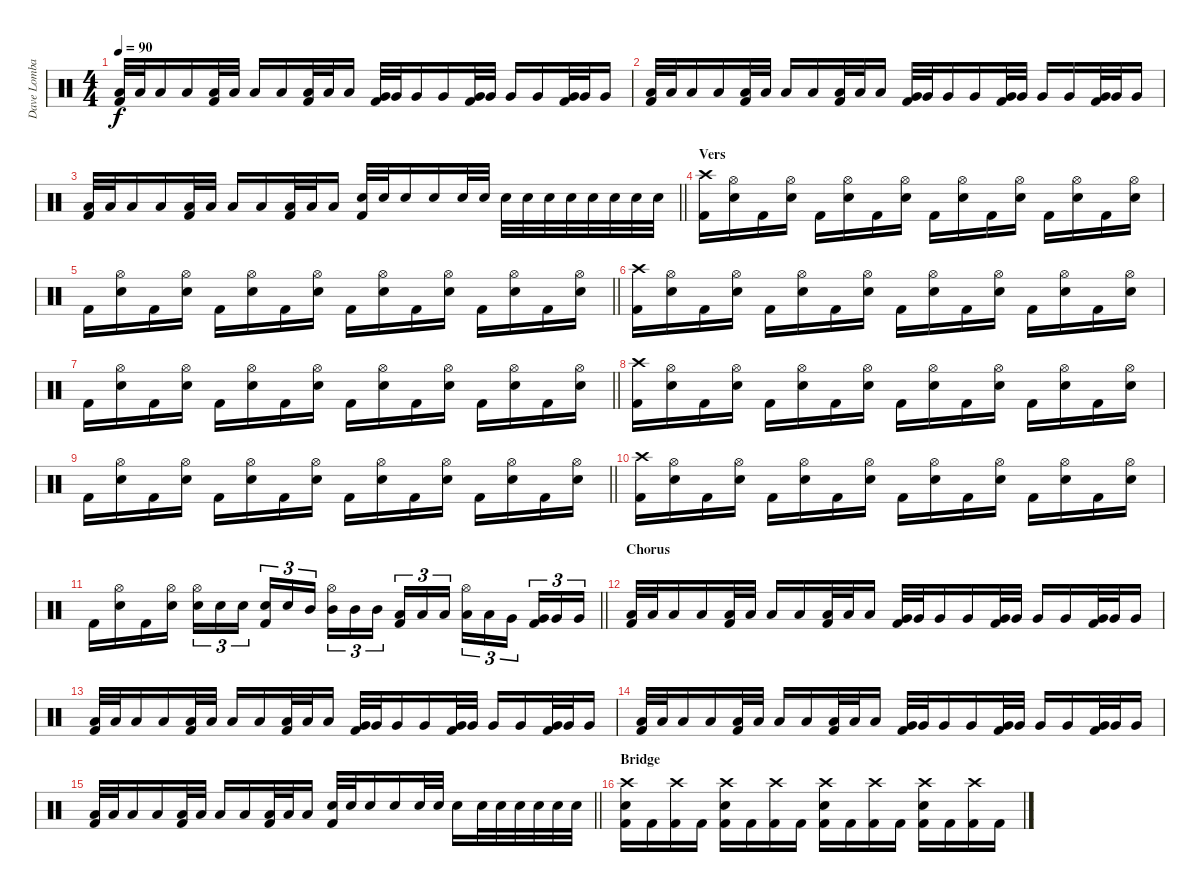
\track ("Dave Lombardo" "Dave Lomba") {instrument percussion}
\staff {score}
\articulation defaults
\ts (4 4)
\tempo 90
\clef neutral
\ks c
("Low Tom (hit)" "Kick (hit) 2").32{dy f} "Low Tom (hit)".32 "Low Tom (hit)".16 "Low Tom (hit)".16 ("Low Tom (hit)" "Kick (hit) 2").32 "Low Tom (hit)".32 "Low Tom (hit)".16 "Low Tom (hit)".16 ("Low Tom (hit)" "Kick (hit) 2").32 "Low Tom (hit)".32 "Low Tom (hit)".16 ("Very Low Tom (hit)" "Kick (hit) 2").32 "Very Low Tom (hit)".32 "Very Low Tom (hit)".16 "Very Low Tom (hit)".16 ("Very Low Tom (hit)" "Kick (hit) 2").32 "Very Low Tom (hit)".32 "Very Low Tom (hit)".16 "Very Low Tom (hit)".16 ("Very Low Tom (hit)" "Kick (hit) 2").32 "Very Low Tom (hit)".32 "Very Low Tom (hit)".16 |
("Low Tom (hit)" "Kick (hit) 2").32 "Low Tom (hit)".32 "Low Tom (hit)".16 "Low Tom (hit)".16 ("Low Tom (hit)" "Kick (hit) 2").32 "Low Tom (hit)".32 "Low Tom (hit)".16 "Low Tom (hit)".16 ("Low Tom (hit)" "Kick (hit) 2").32 "Low Tom (hit)".32 "Low Tom (hit)".16 ("Very Low Tom (hit)" "Kick (hit) 2").32 "Very Low Tom (hit)".32 "Very Low Tom (hit)".16 "Very Low Tom (hit)".16 ("Very Low Tom (hit)" "Kick (hit) 2").32 "Very Low Tom (hit)".32 "Very Low Tom (hit)".16 "Very Low Tom (hit)".16 ("Very Low Tom (hit)" "Kick (hit) 2").32 "Very Low Tom (hit)".32 "Very Low Tom (hit)".16 |
\barLineRight lightlight
("Low Tom (hit)" "Kick (hit) 2").32 "Low Tom (hit)".32 "Low Tom (hit)".16 "Low Tom (hit)".16 ("Low Tom (hit)" "Kick (hit) 2").32 "Low Tom (hit)".32 "Low Tom (hit)".16 "Low Tom (hit)".16 ("Low Tom (hit)" "Kick (hit) 2").32 "Low Tom (hit)".32 "Low Tom (hit)".16 ("Snare (hit) 2" "Kick (hit) 2").32 "Snare (hit) 2".32 "Snare (hit) 2".16 "Snare (hit) 2".16 "Snare (hit) 2".32 "Snare (hit) 2".32 "Snare (hit) 2".32 "Snare (hit) 2".32 "Snare (hit) 2".32 "Snare (hit) 2".32 "Snare (hit) 2".32 "Snare (hit) 2".32 "Snare (hit) 2".32 "Snare (hit) 2".32 |
\section ("" "Vers")
("Crash high (hit)" "Kick (hit) 2").16 ("Hi-Hat (open)" "Snare (hit) 2").16 "Kick (hit) 2".16 ("Hi-Hat (open)" "Snare (hit) 2").16 "Kick (hit) 2".16 ("Hi-Hat (open)" "Snare (hit) 2").16 "Kick (hit) 2".16 ("Hi-Hat (open)" "Snare (hit) 2").16 "Kick (hit) 2".16 ("Hi-Hat (open)" "Snare (hit) 2").16 "Kick (hit) 2".16 ("Hi-Hat (open)" "Snare (hit) 2").16 "Kick (hit) 2".16 ("Hi-Hat (open)" "Snare (hit) 2").16 "Kick (hit) 2".16 ("Hi-Hat (open)" "Snare (hit) 2").16 |
\barLineRight lightlight "Kick (hit) 2".16
("Hi-Hat (open)" "Snare (hit) 2").16 "Kick (hit) 2".16 ("Hi-Hat (open)" "Snare (hit) 2").16 "Kick (hit) 2".16 ("Hi-Hat (open)" "Snare (hit) 2").16 "Kick (hit) 2".16 ("Hi-Hat (open)" "Snare (hit) 2").16 "Kick (hit) 2".16 ("Hi-Hat (open)" "Snare (hit) 2").16 "Kick (hit) 2".16 ("Hi-Hat (open)" "Snare (hit) 2").16 "Kick (hit) 2".16 ("Hi-Hat (open)" "Snare (hit) 2").16 "Kick (hit) 2".16 ("Hi-Hat (open)" "Snare (hit) 2").16 |
("Crash high (hit)" "Kick (hit) 2").16 ("Hi-Hat (open)" "Snare (hit) 2").16 "Kick (hit) 2".16 ("Hi-Hat (open)" "Snare (hit) 2").16 "Kick (hit) 2".16 ("Hi-Hat (open)" "Snare (hit) 2").16 "Kick (hit) 2".16 ("Hi-Hat (open)" "Snare (hit) 2").16 "Kick (hit) 2".16 ("Hi-Hat (open)" "Snare (hit) 2").16 "Kick (hit) 2".16 ("Hi-Hat (open)" "Snare (hit) 2").16 "Kick (hit) 2".16 ("Hi-Hat (open)" "Snare (hit) 2").16 "Kick (hit) 2".16 ("Hi-Hat (open)" "Snare (hit) 2").16 |
\barLineRight lightlight "Kick (hit) 2".16
("Hi-Hat (open)" "Snare (hit) 2").16 "Kick (hit) 2".16 ("Hi-Hat (open)" "Snare (hit) 2").16 "Kick (hit) 2".16 ("Hi-Hat (open)" "Snare (hit) 2").16 "Kick (hit) 2".16 ("Hi-Hat (open)" "Snare (hit) 2").16 "Kick (hit) 2".16 ("Hi-Hat (open)" "Snare (hit) 2").16 "Kick (hit) 2".16 ("Hi-Hat (open)" "Snare (hit) 2").16 "Kick (hit) 2".16 ("Hi-Hat (open)" "Snare (hit) 2").16 "Kick (hit) 2".16 ("Hi-Hat (open)" "Snare (hit) 2").16 |
("Crash high (hit)" "Kick (hit) 2").16 ("Hi-Hat (open)" "Snare (hit) 2").16 "Kick (hit) 2".16 ("Hi-Hat (open)" "Snare (hit) 2").16 "Kick (hit) 2".16 ("Hi-Hat (open)" "Snare (hit) 2").16 "Kick (hit) 2".16 ("Hi-Hat (open)" "Snare (hit) 2").16 "Kick (hit) 2".16 ("Hi-Hat (open)" "Snare (hit) 2").16 "Kick (hit) 2".16 ("Hi-Hat (open)" "Snare (hit) 2").16 "Kick (hit) 2".16 ("Hi-Hat (open)" "Snare (hit) 2").16 "Kick (hit) 2".16 ("Hi-Hat (open)" "Snare (hit) 2").16 |
\barLineRight lightlight "Kick (hit) 2".16
("Hi-Hat (open)" "Snare (hit) 2").16 "Kick (hit) 2".16 ("Hi-Hat (open)" "Snare (hit) 2").16 "Kick (hit) 2".16 ("Hi-Hat (open)" "Snare (hit) 2").16 "Kick (hit) 2".16 ("Hi-Hat (open)" "Snare (hit) 2").16 "Kick (hit) 2".16 ("Hi-Hat (open)" "Snare (hit) 2").16 "Kick (hit) 2".16 ("Hi-Hat (open)" "Snare (hit) 2").16 "Kick (hit) 2".16 ("Hi-Hat (open)" "Snare (hit) 2").16 "Kick (hit) 2".16 ("Hi-Hat (open)" "Snare (hit) 2").16 |
("Crash high (hit)" "Kick (hit) 2").16 ("Hi-Hat (open)" "Snare (hit) 2").16 "Kick (hit) 2".16 ("Hi-Hat (open)" "Snare (hit) 2").16 "Kick (hit) 2".16 ("Hi-Hat (open)" "Snare (hit) 2").16 "Kick (hit) 2".16 ("Hi-Hat (open)" "Snare (hit) 2").16 "Kick (hit) 2".16 ("Hi-Hat (open)" "Snare (hit) 2").16 "Kick (hit) 2".16 ("Hi-Hat (open)" "Snare (hit) 2").16 "Kick (hit) 2".16 ("Hi-Hat (open)" "Snare (hit) 2").16 "Kick (hit) 2".16 ("Hi-Hat (open)" "Snare (hit) 2").16 |
\barLineRight lightlight "Kick (hit) 2".16
("Hi-Hat (open)" "Snare (hit) 2").16 "Kick (hit) 2".16 ("Hi-Hat (open)" "Snare (hit) 2").16 ("Hi-Hat (open)" "Snare (hit) 2").16{tu (3 2)} "Snare (hit) 2".16{tu (3 2)} "Snare (hit) 2".16{tu (3 2) beam splitsecondary} ("Snare (hit) 2" "Kick (hit) 2").16{tu (3 2)} "Snare (hit) 2".16{tu (3 2)} "Mid Tom (hit)".16{tu (3 2)} ("Hi-Hat (open)" "Mid Tom (hit)").16{tu (3 2)} "Mid Tom (hit)".16{tu (3 2)} "Mid Tom (hit)".16{tu (3 2) beam splitsecondary} ("Low Tom (hit)" "Kick (hit) 2").16{tu (3 2)} "Low Tom (hit)".16{tu (3 2)} "Low Tom (hit)".16{tu (3 2)} ("Hi-Hat (open)" "Low Tom (hit)").16{tu (3 2)} "Low Tom (hit)".16{tu (3 2)} "Very Low Tom (hit)".16{tu (3 2) beam splitsecondary} ("Very Low Tom (hit)" "Kick (hit) 2").16{tu (3 2)} "Very Low Tom (hit)".16{tu (3 2)} "Very Low Tom (hit)".16{tu (3 2)} |
\section ("" "Chorus")
("Low Tom (hit)" "Kick (hit) 2").32 "Low Tom (hit)".32 "Low Tom (hit)".16 "Low Tom (hit)".16 ("Low Tom (hit)" "Kick (hit) 2").32 "Low Tom (hit)".32 "Low Tom (hit)".16 "Low Tom (hit)".16 ("Low Tom (hit)" "Kick (hit) 2").32 "Low Tom (hit)".32 "Low Tom (hit)".16 ("Very Low Tom (hit)" "Kick (hit) 2").32 "Very Low Tom (hit)".32 "Very Low Tom (hit)".16 "Very Low Tom (hit)".16 ("Very Low Tom (hit)" "Kick (hit) 2").32 "Very Low Tom (hit)".32 "Very Low Tom (hit)".16 "Very Low Tom (hit)".16 ("Very Low Tom (hit)" "Kick (hit) 2").32 "Very Low Tom (hit)".32 "Very Low Tom (hit)".16 |
("Low Tom (hit)" "Kick (hit) 2").32 "Low Tom (hit)".32 "Low Tom (hit)".16 "Low Tom (hit)".16 ("Low Tom (hit)" "Kick (hit) 2").32 "Low Tom (hit)".32 "Low Tom (hit)".16 "Low Tom (hit)".16 ("Low Tom (hit)" "Kick (hit) 2").32 "Low Tom (hit)".32 "Low Tom (hit)".16 ("Very Low Tom (hit)" "Kick (hit) 2").32 "Very Low Tom (hit)".32 "Very Low Tom (hit)".16 "Very Low Tom (hit)".16 ("Very Low Tom (hit)" "Kick (hit) 2").32 "Very Low Tom (hit)".32 "Very Low Tom (hit)".16 "Very Low Tom (hit)".16 ("Very Low Tom (hit)" "Kick (hit) 2").32 "Very Low Tom (hit)".32 "Very Low Tom (hit)".16 |
("Low Tom (hit)" "Kick (hit) 2").32 "Low Tom (hit)".32 "Low Tom (hit)".16 "Low Tom (hit)".16 ("Low Tom (hit)" "Kick (hit) 2").32 "Low Tom (hit)".32 "Low Tom (hit)".16 "Low Tom (hit)".16 ("Low Tom (hit)" "Kick (hit) 2").32 "Low Tom (hit)".32 "Low Tom (hit)".16 ("Very Low Tom (hit)" "Kick (hit) 2").32 "Very Low Tom (hit)".32 "Very Low Tom (hit)".16 "Very Low Tom (hit)".16 ("Very Low Tom (hit)" "Kick (hit) 2").32 "Very Low Tom (hit)".32 "Very Low Tom (hit)".16 "Very Low Tom (hit)".16 ("Very Low Tom (hit)" "Kick (hit) 2").32 "Very Low Tom (hit)".32 "Very Low Tom (hit)".16 |
\barLineRight lightlight
("Low Tom (hit)" "Kick (hit) 2").32 "Low Tom (hit)".32 "Low Tom (hit)".16 "Low Tom (hit)".16 ("Low Tom (hit)" "Kick (hit) 2").32 "Low Tom (hit)".32 "Low Tom (hit)".16 "Low Tom (hit)".16 ("Low Tom (hit)" "Kick (hit) 2").32 "Low Tom (hit)".32 "Low Tom (hit)".16 ("Snare (hit) 2" "Kick (hit) 2").32 "Snare (hit) 2".32 "Snare (hit) 2".16 "Snare (hit) 2".16 "Snare (hit) 2".32 "Snare (hit) 2".32 "Snare (hit) 2".16 "Snare (hit) 2".32 "Snare (hit) 2".32 "Snare (hit) 2".32 "Snare (hit) 2".32 "Snare (hit) 2".32 "Snare (hit) 2".32 |
\section ("" "Bridge")
("Crash high (hit)" "Snare (hit) 2" "Kick (hit) 2").16 "Kick (hit) 2".16 ("Crash high (hit)" "Kick (hit) 2").16 "Kick (hit) 2".16 ("Crash high (hit)" "Snare (hit) 2" "Kick (hit) 2").16 "Kick (hit) 2".16 ("Crash high (hit)" "Kick (hit) 2").16 "Kick (hit) 2".16 ("Crash high (hit)" "Snare (hit) 2" "Kick (hit) 2").16 "Kick (hit) 2".16 ("Crash high (hit)" "Kick (hit) 2").16 "Kick (hit) 2".16 ("Crash high (hit)" "Snare (hit) 2" "Kick (hit) 2").16 "Kick (hit) 2".16 ("Crash high (hit)" "Kick (hit) 2").16 "Kick (hit) 2".16
